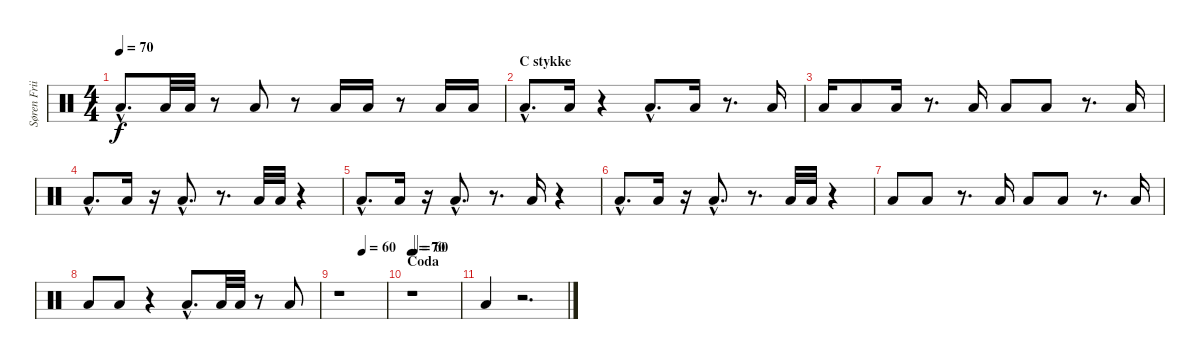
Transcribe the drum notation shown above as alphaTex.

\track ("Søren Friis (Floor Drum)" "Søren Frii") {instrument percussion}
\staff {score}
\articulation defaults
\ts (4 4)
\tempo 70
\clef neutral
\ks c "Low Floor Tom (hit)"{hac}.8{d dy f} "Low Floor Tom (hit)".32 "Low Floor Tom (hit)".32
r.8 "Low Floor Tom (hit)".8 r.8 "Low Floor Tom (hit)".16 "Low Floor Tom (hit)".16 r.8 "Low Floor Tom (hit)".16 "Low Floor Tom (hit)".16 |
\section ("" "C stykke")
"Low Floor Tom (hit)"{hac}.8{d} "Low Floor Tom (hit)".16 r.4 "Low Floor Tom (hit)"{hac}.8{d} "Low Floor Tom (hit)".16 r.8{d} "Low Floor Tom (hit)".16 |
"Low Floor Tom (hit)".16 "Low Floor Tom (hit)".8 "Low Floor Tom (hit)".16 r.8{d} "Low Floor Tom (hit)".16 "Low Floor Tom (hit)".8 "Low Floor Tom (hit)".8 r.8{d} "Low Floor Tom (hit)".16 |
"Low Floor Tom (hit)"{hac}.8{d} "Low Floor Tom (hit)".16 r.16 "Low Floor Tom (hit)"{hac}.8{d} r.8{d} "Low Floor Tom (hit)".32 "Low Floor Tom (hit)".32 r.4 |
"Low Floor Tom (hit)"{hac}.8{d} "Low Floor Tom (hit)".16 r.16 "Low Floor Tom (hit)"{hac}.8{d} r.8{d} "Low Floor Tom (hit)".16 r.4 |
"Low Floor Tom (hit)"{hac}.8{d} "Low Floor Tom (hit)".16 r.16 "Low Floor Tom (hit)"{hac}.8{d} r.8{d} "Low Floor Tom (hit)".32 "Low Floor Tom (hit)".32 r.4 |
"Low Floor Tom (hit)".8 "Low Floor Tom (hit)".8 r.8{d} "Low Floor Tom (hit)".16 "Low Floor Tom (hit)".8 "Low Floor Tom (hit)".8 r.8{d} "Low Floor Tom (hit)".16 |
"Low Floor Tom (hit)".8 "Low Floor Tom (hit)".8 r.4 "Low Floor Tom (hit)"{hac}.8{d} "Low Floor Tom (hit)".32 "Low Floor Tom (hit)".32 r.8 "Low Floor Tom (hit)".8 |
\tempo (60 0.5)
r.1 |
\section ("" "Coda")
\tempo 70
\tempo (60 0.0625)
r.1 |
"Low Floor Tom (hit)".4 r.2{d}
